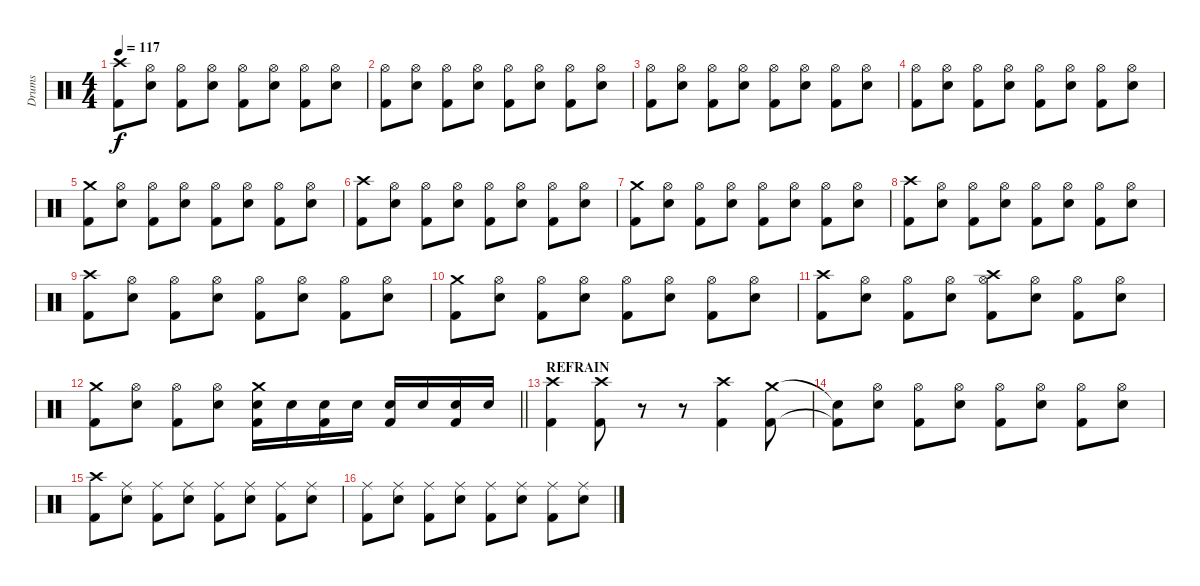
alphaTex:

\track ("Drums" "Drums") {instrument percussion}
\staff {score}
\articulation defaults
\ts (4 4)
\tempo 117
\clef neutral
\ks c
("Crash high (hit)" "Kick (hit) 2").8{dy f} ("Hi-Hat (open)" "Electric Snare (hit)").8 ("Hi-Hat (open)" "Kick (hit) 2").8 ("Hi-Hat (open)" "Electric Snare (hit)").8 ("Hi-Hat (open)" "Kick (hit) 2").8 ("Hi-Hat (open)" "Electric Snare (hit)").8 ("Hi-Hat (open)" "Kick (hit) 2").8 ("Hi-Hat (open)" "Electric Snare (hit)").8 |
("Hi-Hat (open)" "Kick (hit) 2").8 ("Hi-Hat (open)" "Electric Snare (hit)").8 ("Hi-Hat (open)" "Kick (hit) 2").8 ("Hi-Hat (open)" "Electric Snare (hit)").8 ("Hi-Hat (open)" "Kick (hit) 2").8 ("Hi-Hat (open)" "Electric Snare (hit)").8 ("Hi-Hat (open)" "Kick (hit) 2").8 ("Hi-Hat (open)" "Electric Snare (hit)").8 |
("Hi-Hat (open)" "Kick (hit) 2").8 ("Hi-Hat (open)" "Electric Snare (hit)").8 ("Hi-Hat (open)" "Kick (hit) 2").8 ("Hi-Hat (open)" "Electric Snare (hit)").8 ("Hi-Hat (open)" "Kick (hit) 2").8 ("Hi-Hat (open)" "Electric Snare (hit)").8 ("Hi-Hat (open)" "Kick (hit) 2").8 ("Hi-Hat (open)" "Electric Snare (hit)").8 |
("Hi-Hat (open)" "Kick (hit) 2").8 ("Hi-Hat (open)" "Electric Snare (hit)").8 ("Hi-Hat (open)" "Kick (hit) 2").8 ("Hi-Hat (open)" "Electric Snare (hit)").8 ("Hi-Hat (open)" "Kick (hit) 2").8 ("Hi-Hat (open)" "Electric Snare (hit)").8 ("Hi-Hat (open)" "Kick (hit) 2").8 ("Hi-Hat (open)" "Electric Snare (hit)").8 |
("Crash medium (hit)" "Kick (hit) 2").8 ("Hi-Hat (open)" "Electric Snare (hit)").8 ("Hi-Hat (open)" "Kick (hit) 2").8 ("Hi-Hat (open)" "Electric Snare (hit)").8 ("Hi-Hat (open)" "Kick (hit) 2").8 ("Hi-Hat (open)" "Electric Snare (hit)").8 ("Hi-Hat (open)" "Kick (hit) 2").8 ("Hi-Hat (open)" "Electric Snare (hit)").8 |
("Crash high (hit)" "Kick (hit) 2").8 ("Hi-Hat (open)" "Electric Snare (hit)").8 ("Hi-Hat (open)" "Kick (hit) 2").8 ("Hi-Hat (open)" "Electric Snare (hit)").8 ("Hi-Hat (open)" "Kick (hit) 2").8 ("Hi-Hat (open)" "Electric Snare (hit)").8 ("Hi-Hat (open)" "Kick (hit) 2").8 ("Hi-Hat (open)" "Electric Snare (hit)").8 |
("Crash medium (hit)" "Kick (hit) 2").8 ("Hi-Hat (open)" "Electric Snare (hit)").8 ("Hi-Hat (open)" "Kick (hit) 2").8 ("Hi-Hat (open)" "Electric Snare (hit)").8 ("Hi-Hat (open)" "Kick (hit) 2").8 ("Hi-Hat (open)" "Electric Snare (hit)").8 ("Hi-Hat (open)" "Kick (hit) 2").8 ("Hi-Hat (open)" "Electric Snare (hit)").8 |
("Crash high (hit)" "Kick (hit) 2").8 ("Hi-Hat (open)" "Electric Snare (hit)").8 ("Hi-Hat (open)" "Kick (hit) 2").8 ("Hi-Hat (open)" "Electric Snare (hit)").8 ("Hi-Hat (open)" "Kick (hit) 2").8 ("Hi-Hat (open)" "Electric Snare (hit)").8 ("Hi-Hat (open)" "Kick (hit) 2").8 ("Hi-Hat (open)" "Electric Snare (hit)").8 |
("Crash high (hit)" "Kick (hit) 2").8 ("Hi-Hat (open)" "Electric Snare (hit)").8 ("Hi-Hat (open)" "Kick (hit) 2").8 ("Hi-Hat (open)" "Electric Snare (hit)").8 ("Hi-Hat (open)" "Kick (hit) 2").8 ("Hi-Hat (open)" "Electric Snare (hit)").8 ("Hi-Hat (open)" "Kick (hit) 2").8 ("Hi-Hat (open)" "Electric Snare (hit)").8 |
("Crash medium (hit)" "Kick (hit) 2").8 ("Hi-Hat (open)" "Electric Snare (hit)").8 ("Hi-Hat (open)" "Kick (hit) 2").8 ("Hi-Hat (open)" "Electric Snare (hit)").8 ("Hi-Hat (open)" "Kick (hit) 2").8 ("Hi-Hat (open)" "Electric Snare (hit)").8 ("Hi-Hat (open)" "Kick (hit) 2").8 ("Hi-Hat (open)" "Electric Snare (hit)").8 |
("Crash high (hit)" "Kick (hit) 2").8 ("Hi-Hat (open)" "Electric Snare (hit)").8 ("Hi-Hat (open)" "Kick (hit) 2").8 ("Hi-Hat (open)" "Electric Snare (hit)").8 ("Crash high (hit)" "Hi-Hat (open)" "Kick (hit) 2").8 ("Hi-Hat (open)" "Electric Snare (hit)").8 ("Hi-Hat (open)" "Kick (hit) 2").8 ("Hi-Hat (open)" "Electric Snare (hit)").8 |
\barLineRight lightlight
("Crash medium (hit)" "Kick (hit) 2").8 ("Hi-Hat (open)" "Electric Snare (hit)").8 ("Hi-Hat (open)" "Kick (hit) 2").8 ("Hi-Hat (open)" "Electric Snare (hit)").8 ("Crash medium (hit)" "Electric Snare (hit)" "Kick (hit) 2").16 "Electric Snare (hit)".16 ("Electric Snare (hit)" "Kick (hit) 2").16 "Electric Snare (hit)".16 ("Electric Snare (hit)" "Kick (hit) 2").16 "Electric Snare (hit)".16 ("Electric Snare (hit)" "Kick (hit) 2").16 "Electric Snare (hit)".16 |
\section ("" "REFRAIN")
("Crash high (hit)" "Kick (hit) 2").4 ("Crash high (hit)" "Kick (hit) 2").8 r.8 r.8 ("Crash high (hit)" "Kick (hit) 2").4 ("Crash medium (hit)" "Kick (hit) 2").8 |
("Snare (hit)"{t} "Kick (hit) 2"{t}).8 ("Hi-Hat (open)" "Electric Snare (hit)").8 ("Hi-Hat (open)" "Kick (hit) 2").8 ("Hi-Hat (open)" "Electric Snare (hit)").8 ("Hi-Hat (open)" "Kick (hit) 2").8 ("Hi-Hat (open)" "Electric Snare (hit)").8 ("Hi-Hat (open)" "Kick (hit) 2").8 ("Hi-Hat (open)" "Electric Snare (hit)").8 |
("Crash high (hit)" "Kick (hit) 2").8 ("Ride (middle)" "Electric Snare (hit)").8 ("Ride (middle)" "Kick (hit) 2").8 ("Ride (middle)" "Electric Snare (hit)").8 ("Ride (middle)" "Kick (hit) 2").8 ("Ride (middle)" "Electric Snare (hit)").8 ("Ride (middle)" "Kick (hit) 2").8 ("Ride (middle)" "Electric Snare (hit)").8 |
("Ride (middle)" "Kick (hit) 2").8 ("Ride (middle)" "Electric Snare (hit)").8 ("Ride (middle)" "Kick (hit) 2").8 ("Ride (middle)" "Electric Snare (hit)").8 ("Ride (middle)" "Kick (hit) 2").8 ("Ride (middle)" "Electric Snare (hit)").8 ("Ride (middle)" "Kick (hit) 2").8 ("Ride (middle)" "Electric Snare (hit)").8
